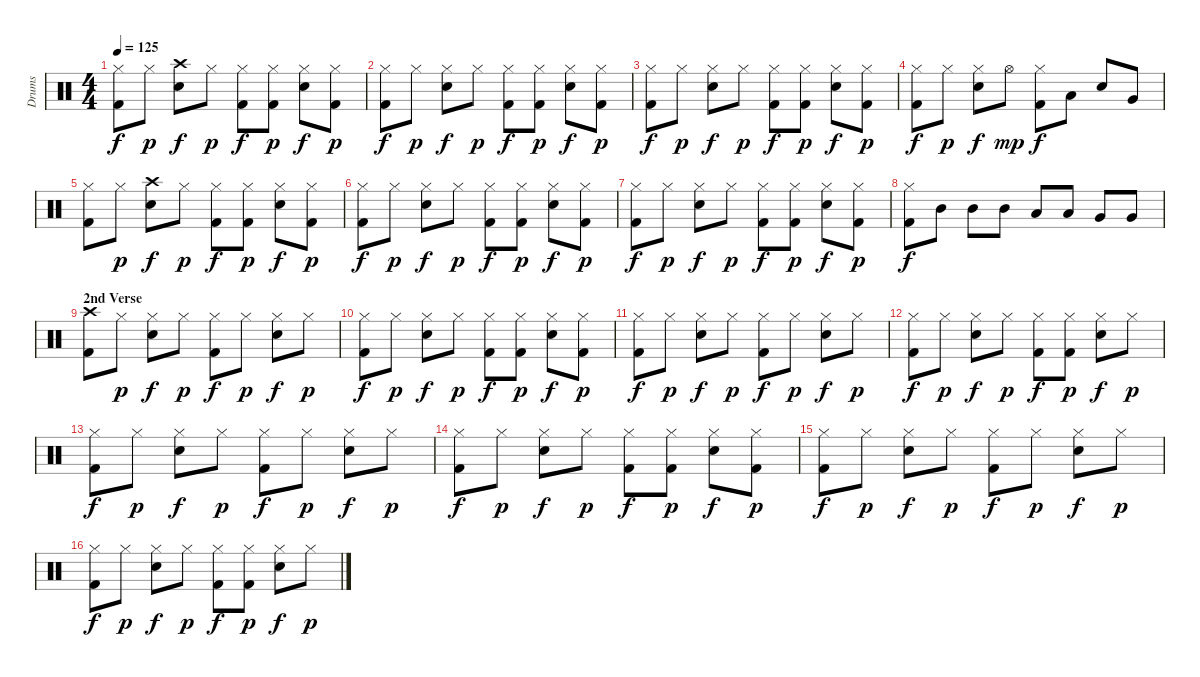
\track ("Drums" "Drums") {instrument percussion}
\staff {score}
\articulation defaults
\ts (4 4)
\tempo 125
\clef neutral
\ks c
("Hi-Hat (closed)" "Kick (hit) 2").8{dy f} "Hi-Hat (closed)".8{dy p} ("Crash high (hit)" "Snare (hit) 2").8{dy f} "Hi-Hat (closed)".8{dy p} ("Hi-Hat (closed)" "Kick (hit) 2").8{dy f} ("Hi-Hat (closed)" "Kick (hit) 2").8{dy p} ("Hi-Hat (closed)" "Snare (hit) 2").8{dy f} ("Hi-Hat (closed)" "Kick (hit) 2").8{dy p} |
("Hi-Hat (closed)" "Kick (hit) 2").8{dy f} "Hi-Hat (closed)".8{dy p} ("Hi-Hat (closed)" "Snare (hit) 2").8{dy f} "Hi-Hat (closed)".8{dy p} ("Hi-Hat (closed)" "Kick (hit) 2").8{dy f} ("Hi-Hat (closed)" "Kick (hit) 2").8{dy p} ("Hi-Hat (closed)" "Snare (hit) 2").8{dy f} ("Hi-Hat (closed)" "Kick (hit) 2").8{dy p} |
("Hi-Hat (closed)" "Kick (hit) 2").8{dy f} "Hi-Hat (closed)".8{dy p} ("Hi-Hat (closed)" "Snare (hit) 2").8{dy f} "Hi-Hat (closed)".8{dy p} ("Hi-Hat (closed)" "Kick (hit) 2").8{dy f} ("Hi-Hat (closed)" "Kick (hit) 2").8{dy p} ("Hi-Hat (closed)" "Snare (hit) 2").8{dy f} ("Hi-Hat (closed)" "Kick (hit) 2").8{dy p} |
("Hi-Hat (closed)" "Kick (hit) 2").8{dy f} "Hi-Hat (closed)".8{dy p} ("Hi-Hat (closed)" "Snare (hit) 2").8{dy f} "Hi-Hat (open)".8{dy mp} ("Hi-Hat (closed)" "Kick (hit) 2").8{dy f} "Low Tom (hit)".8 "Snare (hit) 2".8 "Very Low Tom (hit)".8 |
("Hi-Hat (closed)" "Kick (hit) 2").8 "Hi-Hat (closed)".8{dy p} ("Crash high (hit)" "Snare (hit) 2").8{dy f} "Hi-Hat (closed)".8{dy p} ("Hi-Hat (closed)" "Kick (hit) 2").8{dy f} ("Hi-Hat (closed)" "Kick (hit) 2").8{dy p} ("Hi-Hat (closed)" "Snare (hit) 2").8{dy f} ("Hi-Hat (closed)" "Kick (hit) 2").8{dy p} |
("Hi-Hat (closed)" "Kick (hit) 2").8{dy f} "Hi-Hat (closed)".8{dy p} ("Hi-Hat (closed)" "Snare (hit) 2").8{dy f} "Hi-Hat (closed)".8{dy p} ("Hi-Hat (closed)" "Kick (hit) 2").8{dy f} ("Hi-Hat (closed)" "Kick (hit) 2").8{dy p} ("Hi-Hat (closed)" "Snare (hit) 2").8{dy f} ("Hi-Hat (closed)" "Kick (hit) 2").8{dy p} |
("Hi-Hat (closed)" "Kick (hit) 2").8{dy f} "Hi-Hat (closed)".8{dy p} ("Hi-Hat (closed)" "Snare (hit) 2").8{dy f} "Hi-Hat (closed)".8{dy p} ("Hi-Hat (closed)" "Kick (hit) 2").8{dy f} ("Hi-Hat (closed)" "Kick (hit) 2").8{dy p} ("Hi-Hat (closed)" "Snare (hit) 2").8{dy f} ("Hi-Hat (closed)" "Kick (hit) 2").8{dy p} |
("Hi-Hat (closed)" "Kick (hit) 2").8{dy f} "Mid Tom (hit)".8 "Mid Tom (hit)".8 "Mid Tom (hit)".8 "Low Tom (hit)".8 "Low Tom (hit)".8 "Very Low Tom (hit)".8 "Very Low Tom (hit)".8 |
\section ("" "2nd Verse")
("Crash high (hit)" "Kick (hit) 2").8 "Hi-Hat (closed)".8{dy p} ("Hi-Hat (closed)" "Snare (hit) 2").8{dy f} "Hi-Hat (closed)".8{dy p} ("Hi-Hat (closed)" "Kick (hit) 2").8{dy f} "Hi-Hat (closed)".8{dy p} ("Hi-Hat (closed)" "Snare (hit) 2").8{dy f} "Hi-Hat (closed)".8{dy p} |
("Hi-Hat (closed)" "Kick (hit) 2").8{dy f} "Hi-Hat (closed)".8{dy p} ("Hi-Hat (closed)" "Snare (hit) 2").8{dy f} "Hi-Hat (closed)".8{dy p} ("Hi-Hat (closed)" "Kick (hit) 2").8{dy f} ("Hi-Hat (closed)" "Kick (hit) 2").8{dy p} ("Hi-Hat (closed)" "Snare (hit) 2").8{dy f} ("Hi-Hat (closed)" "Kick (hit) 2").8{dy p} |
("Hi-Hat (closed)" "Kick (hit) 2").8{dy f} "Hi-Hat (closed)".8{dy p} ("Hi-Hat (closed)" "Snare (hit) 2").8{dy f} "Hi-Hat (closed)".8{dy p} ("Hi-Hat (closed)" "Kick (hit) 2").8{dy f} "Hi-Hat (closed)".8{dy p} ("Hi-Hat (closed)" "Snare (hit) 2").8{dy f} "Hi-Hat (closed)".8{dy p} |
("Hi-Hat (closed)" "Kick (hit) 2").8{dy f} "Hi-Hat (closed)".8{dy p} ("Hi-Hat (closed)" "Snare (hit) 2").8{dy f} "Hi-Hat (closed)".8{dy p} ("Hi-Hat (closed)" "Kick (hit) 2").8{dy f} ("Hi-Hat (closed)" "Kick (hit) 2").8{dy p} ("Hi-Hat (closed)" "Snare (hit) 2").8{dy f} "Hi-Hat (closed)".8{dy p} |
("Hi-Hat (closed)" "Kick (hit) 2").8{dy f} "Hi-Hat (closed)".8{dy p} ("Hi-Hat (closed)" "Snare (hit) 2").8{dy f} "Hi-Hat (closed)".8{dy p} ("Hi-Hat (closed)" "Kick (hit) 2").8{dy f} "Hi-Hat (closed)".8{dy p} ("Hi-Hat (closed)" "Snare (hit) 2").8{dy f} "Hi-Hat (closed)".8{dy p} |
("Hi-Hat (closed)" "Kick (hit) 2").8{dy f} "Hi-Hat (closed)".8{dy p} ("Hi-Hat (closed)" "Snare (hit) 2").8{dy f} "Hi-Hat (closed)".8{dy p} ("Hi-Hat (closed)" "Kick (hit) 2").8{dy f} ("Hi-Hat (closed)" "Kick (hit) 2").8{dy p} ("Hi-Hat (closed)" "Snare (hit) 2").8{dy f} ("Hi-Hat (closed)" "Kick (hit) 2").8{dy p} |
("Hi-Hat (closed)" "Kick (hit) 2").8{dy f} "Hi-Hat (closed)".8{dy p} ("Hi-Hat (closed)" "Snare (hit) 2").8{dy f} "Hi-Hat (closed)".8{dy p} ("Hi-Hat (closed)" "Kick (hit) 2").8{dy f} "Hi-Hat (closed)".8{dy p} ("Hi-Hat (closed)" "Snare (hit) 2").8{dy f} "Hi-Hat (closed)".8{dy p} |
("Hi-Hat (closed)" "Kick (hit) 2").8{dy f} "Hi-Hat (closed)".8{dy p} ("Hi-Hat (closed)" "Snare (hit) 2").8{dy f} "Hi-Hat (closed)".8{dy p} ("Hi-Hat (closed)" "Kick (hit) 2").8{dy f} ("Hi-Hat (closed)" "Kick (hit) 2").8{dy p} ("Hi-Hat (closed)" "Snare (hit) 2").8{dy f} "Hi-Hat (closed)".8{dy p}
